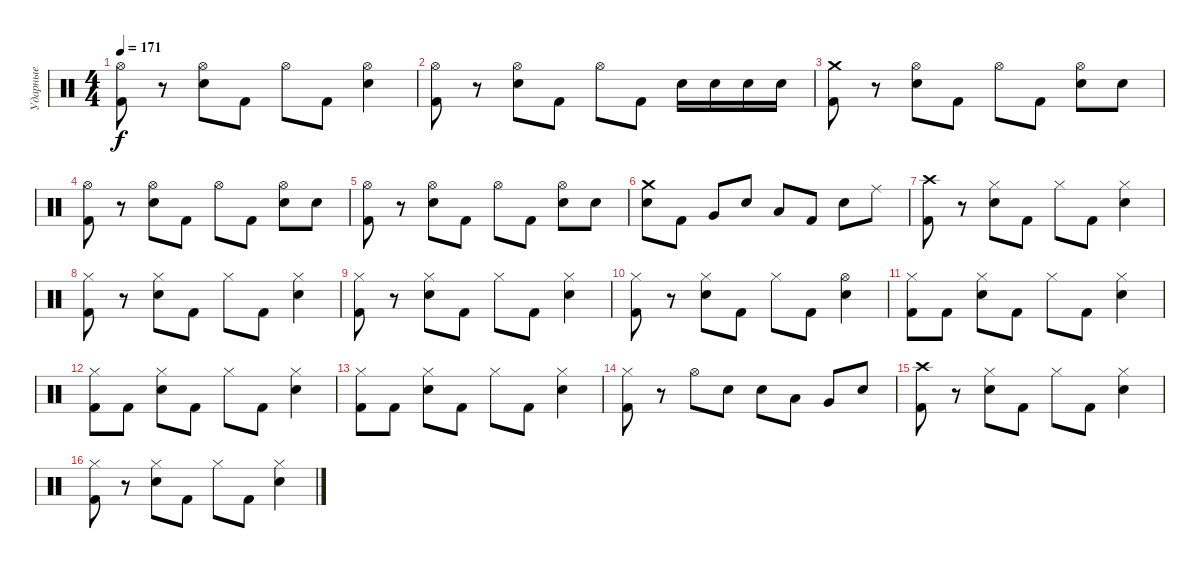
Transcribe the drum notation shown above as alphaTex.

\track ("Ударные" "Ударные") {instrument percussion}
\staff {score}
\articulation defaults
\ts (4 4)
\tempo 171
\clef neutral
\ks c
("Hi-Hat (open)" "Kick (hit) 2").8{dy f} r.8 ("Hi-Hat (open)" "Electric Snare (hit)").8 "Kick (hit) 2".8 "Hi-Hat (open)".8 "Kick (hit) 2".8 ("Hi-Hat (open)" "Electric Snare (hit)").4 |
("Hi-Hat (open)" "Kick (hit) 2").8 r.8 ("Hi-Hat (open)" "Electric Snare (hit)").8 "Kick (hit) 2".8 "Hi-Hat (open)".8 "Kick (hit) 2".8 "Electric Snare (hit)".16 "Electric Snare (hit)".16 "Electric Snare (hit)".16 "Electric Snare (hit)".16 |
("Crash medium (hit)" "Kick (hit) 2").8 r.8 ("Hi-Hat (open)" "Electric Snare (hit)").8 "Kick (hit) 2".8 "Hi-Hat (open)".8 "Kick (hit) 2".8 ("Hi-Hat (open)" "Electric Snare (hit)").8 "Electric Snare (hit)".8 |
("Hi-Hat (open)" "Kick (hit) 2").8 r.8 ("Hi-Hat (open)" "Electric Snare (hit)").8 "Kick (hit) 2".8 "Hi-Hat (open)".8 "Kick (hit) 2".8 ("Hi-Hat (open)" "Electric Snare (hit)").8 "Electric Snare (hit)".8 |
("Hi-Hat (open)" "Kick (hit) 2").8 r.8 ("Hi-Hat (open)" "Electric Snare (hit)").8 "Kick (hit) 2".8 "Hi-Hat (open)".8 "Kick (hit) 2".8 ("Hi-Hat (open)" "Electric Snare (hit)").8 "Electric Snare (hit)".8 |
("Crash medium (hit)" "Electric Snare (hit)").8 "Kick (hit) 2".8 "Very Low Tom (hit)".8 "Electric Snare (hit)".8 "Low Tom (hit)".8 "Kick (hit) 2".8 "Electric Snare (hit)".8 "Ride (middle)".8 |
("Crash high (hit)" "Kick (hit) 2").8 r.8 ("Hi-Hat (closed)" "Electric Snare (hit)").8 "Kick (hit) 2".8 "Hi-Hat (closed)".8 "Kick (hit) 2".8 ("Hi-Hat (closed)" "Electric Snare (hit)").4 |
("Hi-Hat (closed)" "Kick (hit) 2").8 r.8 ("Hi-Hat (closed)" "Electric Snare (hit)").8 "Kick (hit) 2".8 "Hi-Hat (closed)".8 "Kick (hit) 2".8 ("Hi-Hat (closed)" "Electric Snare (hit)").4 |
("Hi-Hat (closed)" "Kick (hit) 2").8 r.8 ("Hi-Hat (closed)" "Electric Snare (hit)").8 "Kick (hit) 2".8 "Hi-Hat (closed)".8 "Kick (hit) 2".8 ("Hi-Hat (closed)" "Electric Snare (hit)").4 |
("Hi-Hat (closed)" "Kick (hit) 2").8 r.8 ("Hi-Hat (closed)" "Electric Snare (hit)").8 "Kick (hit) 2".8 "Hi-Hat (closed)".8 "Kick (hit) 2".8 ("Hi-Hat (open)" "Electric Snare (hit)").4 |
("Hi-Hat (closed)" "Kick (hit) 2").8 "Kick (hit) 2".8 ("Hi-Hat (closed)" "Electric Snare (hit)").8 "Kick (hit) 2".8 "Hi-Hat (closed)".8 "Kick (hit) 2".8 ("Hi-Hat (closed)" "Electric Snare (hit)").4 |
("Hi-Hat (closed)" "Kick (hit) 2").8 "Kick (hit) 2".8 ("Hi-Hat (closed)" "Electric Snare (hit)").8 "Kick (hit) 2".8 "Hi-Hat (closed)".8 "Kick (hit) 2".8 ("Hi-Hat (closed)" "Electric Snare (hit)").4 |
("Hi-Hat (closed)" "Kick (hit) 2").8 "Kick (hit) 2".8 ("Hi-Hat (closed)" "Electric Snare (hit)").8 "Kick (hit) 2".8 "Hi-Hat (closed)".8 "Kick (hit) 2".8 ("Hi-Hat (closed)" "Electric Snare (hit)").4 |
("Hi-Hat (closed)" "Kick (hit) 2").8 r.8 "Hi-Hat (open)".8 "Electric Snare (hit)".8 "Electric Snare (hit)".8 "Low Tom (hit)".8 "Very Low Tom (hit)".8 "Electric Snare (hit)".8 |
("Crash high (hit)" "Kick (hit) 2").8 r.8 ("Hi-Hat (closed)" "Electric Snare (hit)").8 "Kick (hit) 2".8 "Hi-Hat (closed)".8 "Kick (hit) 2".8 ("Hi-Hat (closed)" "Electric Snare (hit)").4 |
("Hi-Hat (closed)" "Kick (hit) 2").8 r.8 ("Hi-Hat (closed)" "Electric Snare (hit)").8 "Kick (hit) 2".8 "Hi-Hat (closed)".8 "Kick (hit) 2".8 ("Hi-Hat (closed)" "Electric Snare (hit)").4
